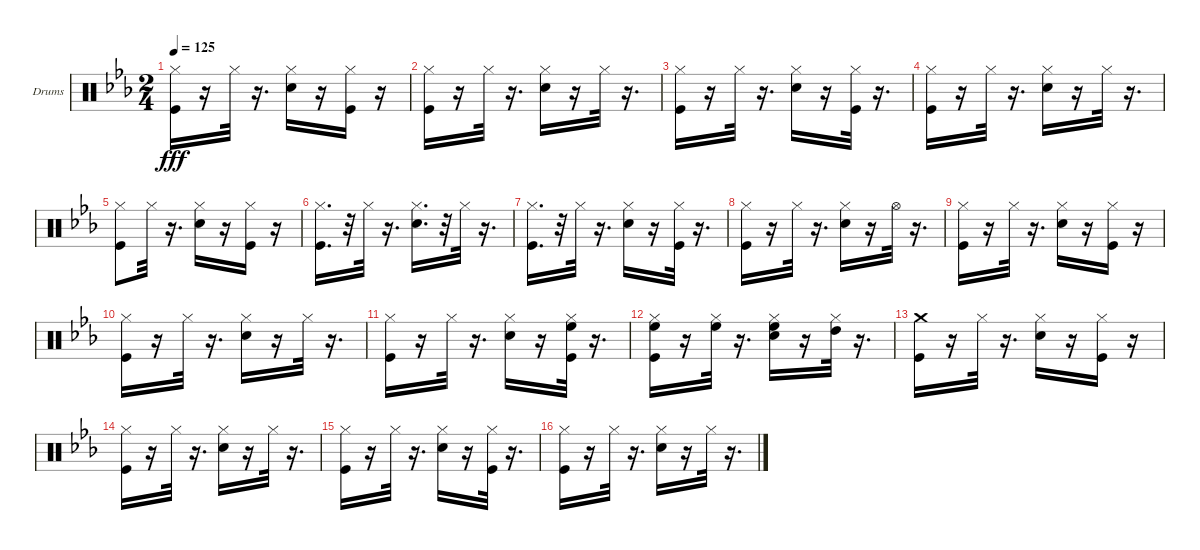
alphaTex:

\bracketExtendMode groupsimilarinstruments
\firstSystemTrackNameOrientation horizontal
\otherSystemsTrackNameOrientation horizontal
\track ("Drumkit" "Drums") {instrument percussion}
\staff {score}
\articulation defaults
\ts (2 4)
\tempo 125
\clef neutral
\ks cminor
("Kick (hit)" "Hi-Hat (closed)").16{dy fff} r.16 "Hi-Hat (closed)".32 r.16{d} ("Snare (hit) 2" "Hi-Hat (closed)").16 r.16 ("Kick (hit)" "Hi-Hat (closed)").16 r.16 |
("Kick (hit)" "Hi-Hat (closed)").16 r.16 "Hi-Hat (closed)".32 r.16{d} ("Snare (hit) 2" "Hi-Hat (closed)").16 r.16 "Hi-Hat (closed)".32 r.16{d} |
("Kick (hit)" "Hi-Hat (closed)").16 r.16 "Hi-Hat (closed)".32 r.16{d} ("Snare (hit) 2" "Hi-Hat (closed)").16 r.16 ("Kick (hit)" "Hi-Hat (closed)").32 r.16{d} |
("Kick (hit)" "Hi-Hat (closed)").16 r.16 "Hi-Hat (closed)".32 r.16{d} ("Snare (hit) 2" "Hi-Hat (closed)").16 r.16 "Hi-Hat (closed)".32 r.16{d} |
("Kick (hit)" "Hi-Hat (closed)").8 "Hi-Hat (closed)".32 r.16{d} ("Snare (hit) 2" "Hi-Hat (closed)").16 r.16 ("Kick (hit)" "Hi-Hat (closed)").16 r.16 |
("Kick (hit)" "Hi-Hat (closed)").16{d} r.32 "Hi-Hat (closed)".32 r.16{d} ("Snare (hit) 2" "Hi-Hat (closed)").16{d} r.32 "Hi-Hat (closed)".32 r.16{d} |
("Kick (hit)" "Hi-Hat (closed)").16{d} r.32 "Hi-Hat (closed)".32 r.16{d} ("Snare (hit) 2" "Hi-Hat (closed)").16 r.16 ("Kick (hit)" "Hi-Hat (closed)").32 r.16{d} |
("Kick (hit)" "Hi-Hat (closed)").16 r.16 "Hi-Hat (closed)".32 r.16{d} ("Snare (hit) 2" "Hi-Hat (closed)").16 r.16 "Hi-Hat (open)".32 r.16{d} |
("Kick (hit)" "Hi-Hat (closed)").16 r.16 "Hi-Hat (closed)".32 r.16{d} ("Snare (hit) 2" "Hi-Hat (closed)").16 r.16 ("Kick (hit)" "Hi-Hat (closed)").16 r.16 |
("Kick (hit)" "Hi-Hat (closed)").16 r.16 "Hi-Hat (closed)".32 r.16{d} ("Snare (hit) 2" "Hi-Hat (closed)").16 r.16 "Hi-Hat (closed)".32 r.16{d} |
("Kick (hit)" "Hi-Hat (closed)").16 r.16 "Hi-Hat (closed)".32 r.16{d} ("Snare (hit) 2" "Hi-Hat (closed)").16 r.16 ("High Floor Tom (hit)" "Kick (hit)" "Hi-Hat (closed)").32 r.16{d} |
("High Floor Tom (hit)" "Kick (hit)" "Hi-Hat (closed)").16 r.16 ("High Floor Tom (hit)" "Hi-Hat (closed)").32 r.16{d} ("High Floor Tom (hit)" "Snare (hit) 2" "Hi-Hat (closed)").16 r.16 ("High Tom (hit)" "Hi-Hat (closed)").32 r.16{d} |
("Kick (hit)" "Crash medium (hit)").16 r.16 "Hi-Hat (closed)".32 r.16{d} ("Snare (hit) 2" "Hi-Hat (closed)").16 r.16 ("Kick (hit)" "Hi-Hat (closed)").16 r.16 |
("Kick (hit)" "Hi-Hat (closed)").16 r.16 "Hi-Hat (closed)".32 r.16{d} ("Snare (hit) 2" "Hi-Hat (closed)").16 r.16 "Hi-Hat (closed)".32 r.16{d} |
("Kick (hit)" "Hi-Hat (closed)").16 r.16 "Hi-Hat (closed)".32 r.16{d} ("Snare (hit) 2" "Hi-Hat (closed)").16 r.16 ("Kick (hit)" "Hi-Hat (closed)").32 r.16{d} |
("Kick (hit)" "Hi-Hat (closed)").16 r.16 "Hi-Hat (closed)".32 r.16{d} ("Snare (hit) 2" "Hi-Hat (closed)").16 r.16 "Hi-Hat (closed)".32 r.16{d}
